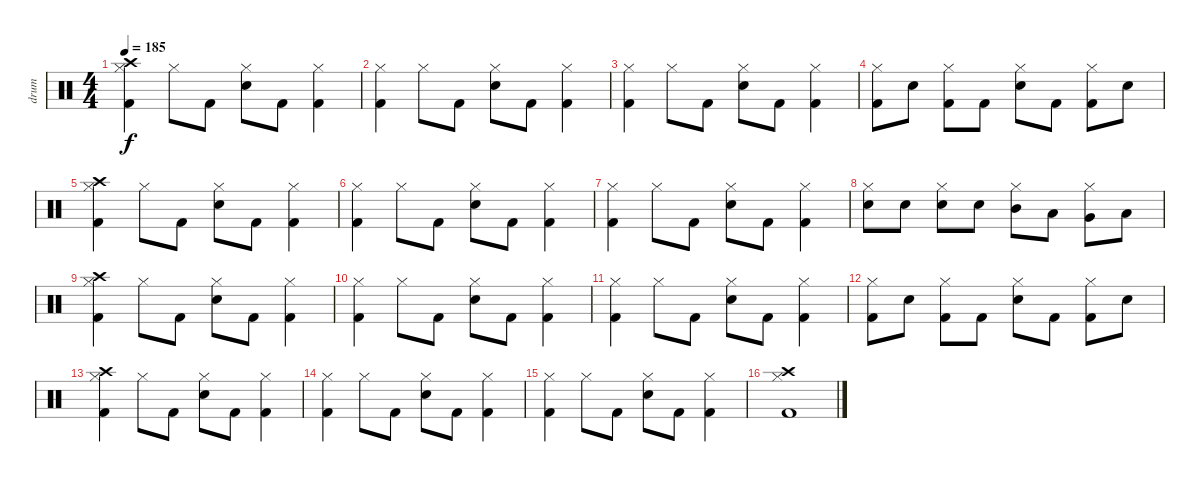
\track ("drum" "drum") {instrument percussion}
\staff {score}
\articulation defaults
\ts (4 4)
\tempo 185
\clef neutral
\ks c
("Hi-Hat (closed)" "Crash high (hit)" "Kick (hit) 2").4{dy f} "Hi-Hat (closed)".8 "Kick (hit) 2".8 ("Hi-Hat (closed)" "Electric Snare (hit)").8 "Kick (hit) 2".8 ("Hi-Hat (closed)" "Kick (hit) 2").4 |
("Hi-Hat (closed)" "Kick (hit) 2").4 "Hi-Hat (closed)".8 "Kick (hit) 2".8 ("Hi-Hat (closed)" "Electric Snare (hit)").8 "Kick (hit) 2".8 ("Hi-Hat (closed)" "Kick (hit) 2").4 |
("Hi-Hat (closed)" "Kick (hit) 2").4 "Hi-Hat (closed)".8 "Kick (hit) 2".8 ("Hi-Hat (closed)" "Electric Snare (hit)").8 "Kick (hit) 2".8 ("Hi-Hat (closed)" "Kick (hit) 2").4 |
("Hi-Hat (closed)" "Kick (hit) 2").8 "Electric Snare (hit)".8 ("Hi-Hat (closed)" "Kick (hit) 2").8 "Kick (hit) 2".8 ("Hi-Hat (closed)" "Electric Snare (hit)").8 "Kick (hit) 2".8 ("Hi-Hat (closed)" "Kick (hit) 2").8 "Electric Snare (hit)".8 |
("Hi-Hat (closed)" "Crash high (hit)" "Kick (hit) 2").4 "Hi-Hat (closed)".8 "Kick (hit) 2".8 ("Hi-Hat (closed)" "Electric Snare (hit)").8 "Kick (hit) 2".8 ("Hi-Hat (closed)" "Kick (hit) 2").4 |
("Hi-Hat (closed)" "Kick (hit) 2").4 "Hi-Hat (closed)".8 "Kick (hit) 2".8 ("Hi-Hat (closed)" "Electric Snare (hit)").8 "Kick (hit) 2".8 ("Hi-Hat (closed)" "Kick (hit) 2").4 |
("Hi-Hat (closed)" "Kick (hit) 2").4 "Hi-Hat (closed)".8 "Kick (hit) 2".8 ("Hi-Hat (closed)" "Electric Snare (hit)").8 "Kick (hit) 2".8 ("Hi-Hat (closed)" "Kick (hit) 2").4 |
("Hi-Hat (closed)" "Electric Snare (hit)").8 "Electric Snare (hit)".8 ("Hi-Hat (closed)" "Electric Snare (hit)").8 "Electric Snare (hit)".8 ("Hi-Hat (closed)" "Mid Tom (hit)").8 "Low Tom (hit)".8 ("Hi-Hat (closed)" "Very Low Tom (hit)").8 "Low Floor Tom (hit)".8 |
("Hi-Hat (closed)" "Crash high (hit)" "Kick (hit) 2").4 "Hi-Hat (closed)".8 "Kick (hit) 2".8 ("Hi-Hat (closed)" "Electric Snare (hit)").8 "Kick (hit) 2".8 ("Hi-Hat (closed)" "Kick (hit) 2").4 |
("Hi-Hat (closed)" "Kick (hit) 2").4 "Hi-Hat (closed)".8 "Kick (hit) 2".8 ("Hi-Hat (closed)" "Electric Snare (hit)").8 "Kick (hit) 2".8 ("Hi-Hat (closed)" "Kick (hit) 2").4 |
("Hi-Hat (closed)" "Kick (hit) 2").4 "Hi-Hat (closed)".8 "Kick (hit) 2".8 ("Hi-Hat (closed)" "Electric Snare (hit)").8 "Kick (hit) 2".8 ("Hi-Hat (closed)" "Kick (hit) 2").4 |
("Hi-Hat (closed)" "Kick (hit) 2").8 "Electric Snare (hit)".8 ("Hi-Hat (closed)" "Kick (hit) 2").8 "Kick (hit) 2".8 ("Hi-Hat (closed)" "Electric Snare (hit)").8 "Kick (hit) 2".8 ("Hi-Hat (closed)" "Kick (hit) 2").8 "Electric Snare (hit)".8 |
("Hi-Hat (closed)" "Crash high (hit)" "Kick (hit) 2").4 "Hi-Hat (closed)".8 "Kick (hit) 2".8 ("Hi-Hat (closed)" "Electric Snare (hit)").8 "Kick (hit) 2".8 ("Hi-Hat (closed)" "Kick (hit) 2").4 |
("Hi-Hat (closed)" "Kick (hit) 2").4 "Hi-Hat (closed)".8 "Kick (hit) 2".8 ("Hi-Hat (closed)" "Electric Snare (hit)").8 "Kick (hit) 2".8 ("Hi-Hat (closed)" "Kick (hit) 2").4 |
("Hi-Hat (closed)" "Kick (hit) 2").4 "Hi-Hat (closed)".8 "Kick (hit) 2".8 ("Hi-Hat (closed)" "Electric Snare (hit)").8 "Kick (hit) 2".8 ("Hi-Hat (closed)" "Kick (hit) 2").4 |
("Crash high (hit)" "Hi-Hat (closed)" "Kick (hit) 2").1{volume 5}
